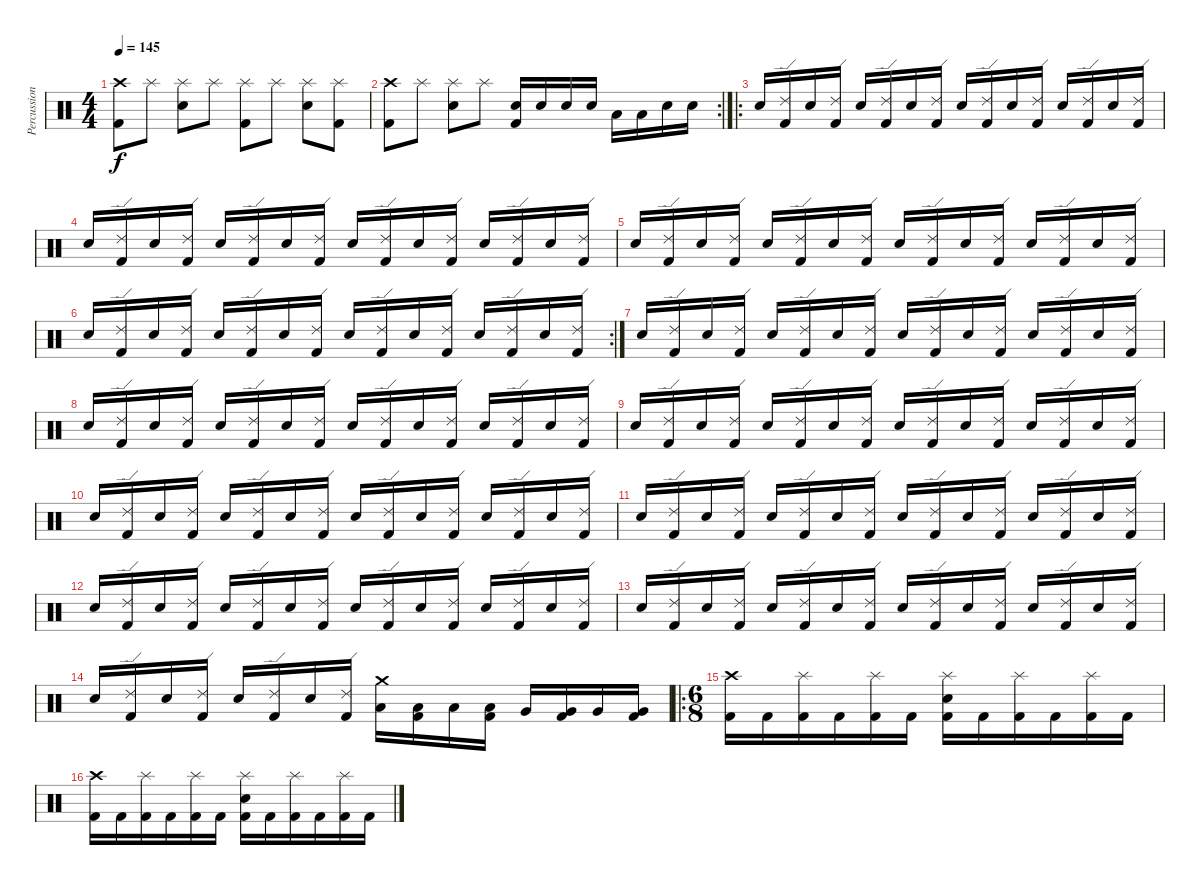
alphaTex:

\track ("Percussion" "Percussion") {instrument percussion}
\staff {score}
\articulation defaults
\ts (4 4)
\tempo 145
\clef neutral
\ks c
("Crash high (hit)" "Kick (hit) 2").8{dy f} "Splash (hit)".8 ("Splash (hit)" "Electric Snare (hit)").8 "Splash (hit)".8 ("Splash (hit)" "Kick (hit) 2").8 "Splash (hit)".8 ("Splash (hit)" "Electric Snare (hit)").8 ("Splash (hit)" "Kick (hit) 2").8 |
\rc 2
("Crash high (hit)" "Kick (hit) 2").8 "Splash (hit)".8 ("Splash (hit)" "Electric Snare (hit)").8 "Splash (hit)".8 ("Electric Snare (hit)" "Kick (hit) 2").16 "Electric Snare (hit)".16 "Electric Snare (hit)".16 "Electric Snare (hit)".16 "Low Tom (hit)".16 "Low Tom (hit)".16 "Electric Snare (hit)".16 "Electric Snare (hit)".16 |
\ro "Electric Snare (hit)".16
("Ride (edge) 2" "Kick (hit) 2").16 "Electric Snare (hit)".16 ("Ride (edge) 2" "Kick (hit) 2").16 "Electric Snare (hit)".16 ("Ride (edge) 2" "Kick (hit) 2").16 "Electric Snare (hit)".16 ("Ride (edge) 2" "Kick (hit) 2").16 "Electric Snare (hit)".16 ("Ride (edge) 2" "Kick (hit) 2").16 "Electric Snare (hit)".16 ("Ride (edge) 2" "Kick (hit) 2").16 "Electric Snare (hit)".16 ("Ride (edge) 2" "Kick (hit) 2").16 "Electric Snare (hit)".16 ("Ride (edge) 2" "Kick (hit) 2").16 |
"Electric Snare (hit)".16 ("Ride (edge) 2" "Kick (hit) 2").16 "Electric Snare (hit)".16 ("Ride (edge) 2" "Kick (hit) 2").16 "Electric Snare (hit)".16 ("Ride (edge) 2" "Kick (hit) 2").16 "Electric Snare (hit)".16 ("Ride (edge) 2" "Kick (hit) 2").16 "Electric Snare (hit)".16 ("Ride (edge) 2" "Kick (hit) 2").16 "Electric Snare (hit)".16 ("Ride (edge) 2" "Kick (hit) 2").16 "Electric Snare (hit)".16 ("Ride (edge) 2" "Kick (hit) 2").16 "Electric Snare (hit)".16 ("Ride (edge) 2" "Kick (hit) 2").16 |
"Electric Snare (hit)".16 ("Ride (edge) 2" "Kick (hit) 2").16 "Electric Snare (hit)".16 ("Ride (edge) 2" "Kick (hit) 2").16 "Electric Snare (hit)".16 ("Ride (edge) 2" "Kick (hit) 2").16 "Electric Snare (hit)".16 ("Ride (edge) 2" "Kick (hit) 2").16 "Electric Snare (hit)".16 ("Ride (edge) 2" "Kick (hit) 2").16 "Electric Snare (hit)".16 ("Ride (edge) 2" "Kick (hit) 2").16 "Electric Snare (hit)".16 ("Ride (edge) 2" "Kick (hit) 2").16 "Electric Snare (hit)".16 ("Ride (edge) 2" "Kick (hit) 2").16 |
\rc 2 "Electric Snare (hit)".16
("Ride (edge) 2" "Kick (hit) 2").16 "Electric Snare (hit)".16 ("Ride (edge) 2" "Kick (hit) 2").16 "Electric Snare (hit)".16 ("Ride (edge) 2" "Kick (hit) 2").16 "Electric Snare (hit)".16 ("Ride (edge) 2" "Kick (hit) 2").16 "Electric Snare (hit)".16 ("Ride (edge) 2" "Kick (hit) 2").16 "Electric Snare (hit)".16 ("Ride (edge) 2" "Kick (hit) 2").16 "Electric Snare (hit)".16 ("Ride (edge) 2" "Kick (hit) 2").16 "Electric Snare (hit)".16 ("Ride (edge) 2" "Kick (hit) 2").16 |
"Electric Snare (hit)".16 ("Ride (edge) 2" "Kick (hit) 2").16 "Electric Snare (hit)".16 ("Ride (edge) 2" "Kick (hit) 2").16 "Electric Snare (hit)".16 ("Ride (edge) 2" "Kick (hit) 2").16 "Electric Snare (hit)".16 ("Ride (edge) 2" "Kick (hit) 2").16 "Electric Snare (hit)".16 ("Ride (edge) 2" "Kick (hit) 2").16 "Electric Snare (hit)".16 ("Ride (edge) 2" "Kick (hit) 2").16 "Electric Snare (hit)".16 ("Ride (edge) 2" "Kick (hit) 2").16 "Electric Snare (hit)".16 ("Ride (edge) 2" "Kick (hit) 2").16 |
"Electric Snare (hit)".16 ("Ride (edge) 2" "Kick (hit) 2").16 "Electric Snare (hit)".16 ("Ride (edge) 2" "Kick (hit) 2").16 "Electric Snare (hit)".16 ("Ride (edge) 2" "Kick (hit) 2").16 "Electric Snare (hit)".16 ("Ride (edge) 2" "Kick (hit) 2").16 "Electric Snare (hit)".16 ("Ride (edge) 2" "Kick (hit) 2").16 "Electric Snare (hit)".16 ("Ride (edge) 2" "Kick (hit) 2").16 "Electric Snare (hit)".16 ("Ride (edge) 2" "Kick (hit) 2").16 "Electric Snare (hit)".16 ("Ride (edge) 2" "Kick (hit) 2").16 |
"Electric Snare (hit)".16 ("Ride (edge) 2" "Kick (hit) 2").16 "Electric Snare (hit)".16 ("Ride (edge) 2" "Kick (hit) 2").16 "Electric Snare (hit)".16 ("Ride (edge) 2" "Kick (hit) 2").16 "Electric Snare (hit)".16 ("Ride (edge) 2" "Kick (hit) 2").16 "Electric Snare (hit)".16 ("Ride (edge) 2" "Kick (hit) 2").16 "Electric Snare (hit)".16 ("Ride (edge) 2" "Kick (hit) 2").16 "Electric Snare (hit)".16 ("Ride (edge) 2" "Kick (hit) 2").16 "Electric Snare (hit)".16 ("Ride (edge) 2" "Kick (hit) 2").16 |
"Electric Snare (hit)".16 ("Ride (edge) 2" "Kick (hit) 2").16 "Electric Snare (hit)".16 ("Ride (edge) 2" "Kick (hit) 2").16 "Electric Snare (hit)".16 ("Ride (edge) 2" "Kick (hit) 2").16 "Electric Snare (hit)".16 ("Ride (edge) 2" "Kick (hit) 2").16 "Electric Snare (hit)".16 ("Ride (edge) 2" "Kick (hit) 2").16 "Electric Snare (hit)".16 ("Ride (edge) 2" "Kick (hit) 2").16 "Electric Snare (hit)".16 ("Ride (edge) 2" "Kick (hit) 2").16 "Electric Snare (hit)".16 ("Ride (edge) 2" "Kick (hit) 2").16 |
"Electric Snare (hit)".16 ("Ride (edge) 2" "Kick (hit) 2").16 "Electric Snare (hit)".16 ("Ride (edge) 2" "Kick (hit) 2").16 "Electric Snare (hit)".16 ("Ride (edge) 2" "Kick (hit) 2").16 "Electric Snare (hit)".16 ("Ride (edge) 2" "Kick (hit) 2").16 "Electric Snare (hit)".16 ("Ride (edge) 2" "Kick (hit) 2").16 "Electric Snare (hit)".16 ("Ride (edge) 2" "Kick (hit) 2").16 "Electric Snare (hit)".16 ("Ride (edge) 2" "Kick (hit) 2").16 "Electric Snare (hit)".16 ("Ride (edge) 2" "Kick (hit) 2").16 |
"Electric Snare (hit)".16 ("Ride (edge) 2" "Kick (hit) 2").16 "Electric Snare (hit)".16 ("Ride (edge) 2" "Kick (hit) 2").16 "Electric Snare (hit)".16 ("Ride (edge) 2" "Kick (hit) 2").16 "Electric Snare (hit)".16 ("Ride (edge) 2" "Kick (hit) 2").16 "Electric Snare (hit)".16 ("Ride (edge) 2" "Kick (hit) 2").16 "Electric Snare (hit)".16 ("Ride (edge) 2" "Kick (hit) 2").16 "Electric Snare (hit)".16 ("Ride (edge) 2" "Kick (hit) 2").16 "Electric Snare (hit)".16 ("Ride (edge) 2" "Kick (hit) 2").16 |
"Electric Snare (hit)".16 ("Ride (edge) 2" "Kick (hit) 2").16 "Electric Snare (hit)".16 ("Ride (edge) 2" "Kick (hit) 2").16 "Electric Snare (hit)".16 ("Ride (edge) 2" "Kick (hit) 2").16 "Electric Snare (hit)".16 ("Ride (edge) 2" "Kick (hit) 2").16 "Electric Snare (hit)".16 ("Ride (edge) 2" "Kick (hit) 2").16 "Electric Snare (hit)".16 ("Ride (edge) 2" "Kick (hit) 2").16 "Electric Snare (hit)".16 ("Ride (edge) 2" "Kick (hit) 2").16 "Electric Snare (hit)".16 ("Ride (edge) 2" "Kick (hit) 2").16 |
"Electric Snare (hit)".16 ("Ride (edge) 2" "Kick (hit) 2").16 "Electric Snare (hit)".16 ("Ride (edge) 2" "Kick (hit) 2").16 "Electric Snare (hit)".16 ("Ride (edge) 2" "Kick (hit) 2").16 "Electric Snare (hit)".16 ("Ride (edge) 2" "Kick (hit) 2").16 ("Crash medium (hit)" "Low Tom (hit)").16 ("Low Tom (hit)" "Kick (hit) 2").16 "Low Tom (hit)".16 ("Low Tom (hit)" "Kick (hit) 2").16 "Very Low Tom (hit)".16 ("Very Low Tom (hit)" "Kick (hit) 2").16 "Very Low Tom (hit)".16 ("Very Low Tom (hit)" "Kick (hit) 2").16 |
\ro
\ts (6 8)
("Crash high (hit)" "Kick (hit) 2").16 "Kick (hit) 2".16 ("Splash (hit)" "Kick (hit) 2").16 "Kick (hit) 2".16 ("Splash (hit)" "Kick (hit) 2").16 "Kick (hit) 2".16 ("Splash (hit)" "Electric Snare (hit)" "Kick (hit) 2").16 "Kick (hit) 2".16 ("Splash (hit)" "Kick (hit) 2").16 "Kick (hit) 2".16 ("Splash (hit)" "Kick (hit) 2").16 "Kick (hit) 2".16 |
("Crash high (hit)" "Kick (hit) 2").16 "Kick (hit) 2".16 ("Splash (hit)" "Kick (hit) 2").16 "Kick (hit) 2".16 ("Splash (hit)" "Kick (hit) 2").16 "Kick (hit) 2".16 ("Splash (hit)" "Electric Snare (hit)" "Kick (hit) 2").16 "Kick (hit) 2".16 ("Splash (hit)" "Kick (hit) 2").16 "Kick (hit) 2".16 ("Splash (hit)" "Kick (hit) 2").16 "Kick (hit) 2".16
